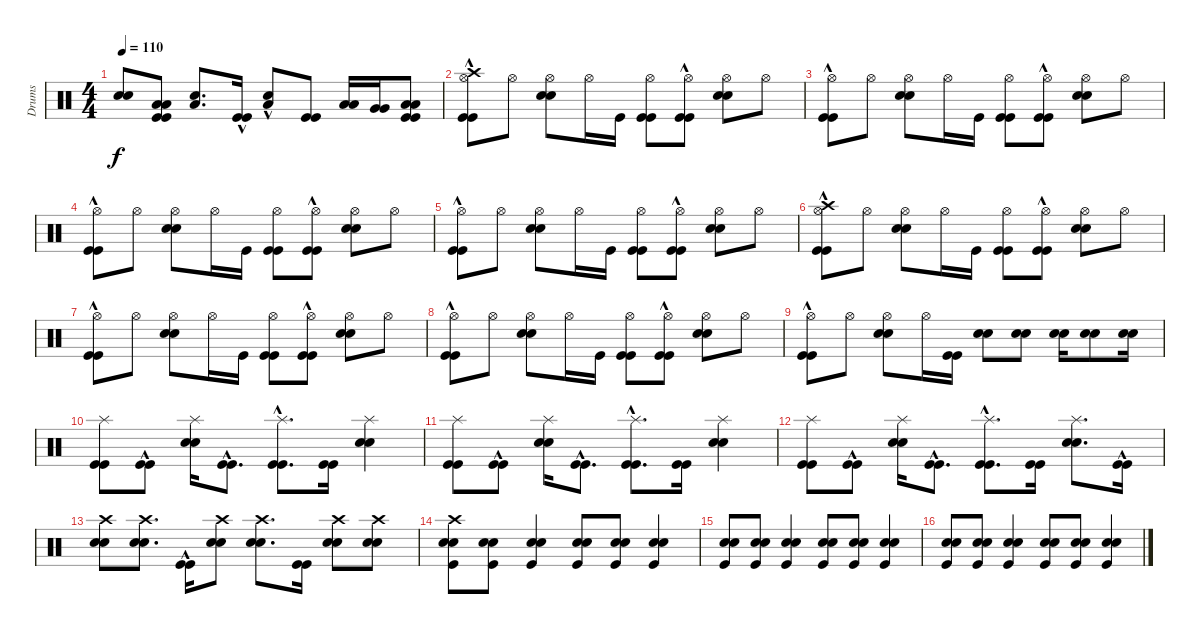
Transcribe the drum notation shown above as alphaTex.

\track ("Drums" "Drums") {instrument percussion}
\staff {score}
\articulation defaults
\ts (4 4)
\tempo 110
\clef neutral
\ks c
("Snare (hit) 2" "Snare (hit) 2").8{dy f} ("Kick (hit)" "Kick (hit)" "Low Tom (hit)" "Low Tom (hit)").8 ("Low Floor Tom (hit)" "Snare (hit) 2").8{d} ("Kick (hit)"{hac} "Kick (hit)"{hac}).16 ("Low Floor Tom (hit)"{hac} "Snare (hit) 2"{hac}).8 ("Kick (hit)" "Kick (hit)").8 ("Low Tom (hit)" "Low Tom (hit)").16 ("Very Low Tom (hit)" "Very Low Tom (hit)").16 ("Kick (hit)" "Kick (hit)" "Low Floor Tom (hit)" "Low Floor Tom (hit)").8 |
("Kick (hit)"{hac} "Kick (hit)"{hac} "Hi-Hat (open)" "Crash high (hit)").8 "Hi-Hat (open)".8 ("Snare (hit) 2" "Snare (hit) 2" "Hi-Hat (open)").8 "Hi-Hat (open)".16 "Kick (hit)".16 ("Kick (hit)" "Kick (hit)" "Hi-Hat (open)").8 ("Kick (hit)"{hac} "Kick (hit)"{hac} "Hi-Hat (open)").8 ("Snare (hit) 2" "Snare (hit) 2" "Hi-Hat (open)").8 "Hi-Hat (open)".8 |
("Kick (hit)"{hac} "Kick (hit)"{hac} "Hi-Hat (open)").8 "Hi-Hat (open)".8 ("Snare (hit) 2" "Snare (hit) 2" "Hi-Hat (open)").8 "Hi-Hat (open)".16 "Kick (hit)".16 ("Kick (hit)" "Kick (hit)" "Hi-Hat (open)").8 ("Kick (hit)"{hac} "Kick (hit)"{hac} "Hi-Hat (open)").8 ("Snare (hit) 2" "Snare (hit) 2" "Hi-Hat (open)").8 "Hi-Hat (open)".8 |
("Kick (hit)"{hac} "Kick (hit)"{hac} "Hi-Hat (open)").8 "Hi-Hat (open)".8 ("Snare (hit) 2" "Snare (hit) 2" "Hi-Hat (open)").8 "Hi-Hat (open)".16 "Kick (hit)".16 ("Kick (hit)" "Kick (hit)" "Hi-Hat (open)").8 ("Kick (hit)"{hac} "Kick (hit)"{hac} "Hi-Hat (open)").8 ("Snare (hit) 2" "Snare (hit) 2" "Hi-Hat (open)").8 "Hi-Hat (open)".8 |
("Kick (hit)"{hac} "Kick (hit)"{hac} "Hi-Hat (open)").8 "Hi-Hat (open)".8 ("Snare (hit) 2" "Snare (hit) 2" "Hi-Hat (open)").8 "Hi-Hat (open)".16 "Kick (hit)".16 ("Kick (hit)" "Kick (hit)" "Hi-Hat (open)").8 ("Kick (hit)"{hac} "Kick (hit)"{hac} "Hi-Hat (open)").8 ("Snare (hit) 2" "Snare (hit) 2" "Hi-Hat (open)").8 "Hi-Hat (open)".8 |
("Kick (hit)"{hac} "Kick (hit)"{hac} "Hi-Hat (open)" "Crash high (hit)").8 "Hi-Hat (open)".8 ("Snare (hit) 2" "Snare (hit) 2" "Hi-Hat (open)").8 "Hi-Hat (open)".16 "Kick (hit)".16 ("Kick (hit)" "Kick (hit)" "Hi-Hat (open)").8 ("Kick (hit)"{hac} "Kick (hit)"{hac} "Hi-Hat (open)").8 ("Snare (hit) 2" "Snare (hit) 2" "Hi-Hat (open)").8 "Hi-Hat (open)".8 |
("Kick (hit)"{hac} "Kick (hit)"{hac} "Hi-Hat (open)").8 "Hi-Hat (open)".8 ("Snare (hit) 2" "Snare (hit) 2" "Hi-Hat (open)").8 "Hi-Hat (open)".16 "Kick (hit)".16 ("Kick (hit)" "Kick (hit)" "Hi-Hat (open)").8 ("Kick (hit)"{hac} "Kick (hit)"{hac} "Hi-Hat (open)").8 ("Snare (hit) 2" "Snare (hit) 2" "Hi-Hat (open)").8 "Hi-Hat (open)".8 |
("Kick (hit)"{hac} "Kick (hit)"{hac} "Hi-Hat (open)").8 "Hi-Hat (open)".8 ("Snare (hit) 2" "Snare (hit) 2" "Hi-Hat (open)").8 "Hi-Hat (open)".16 "Kick (hit)".16 ("Kick (hit)" "Kick (hit)" "Hi-Hat (open)").8 ("Kick (hit)"{hac} "Kick (hit)"{hac} "Hi-Hat (open)").8 ("Snare (hit) 2" "Snare (hit) 2" "Hi-Hat (open)").8 "Hi-Hat (open)".8 |
("Kick (hit)"{hac} "Kick (hit)"{hac} "Hi-Hat (open)").8 "Hi-Hat (open)".8 ("Snare (hit) 2" "Snare (hit) 2" "Hi-Hat (open)").8 "Hi-Hat (open)".16 ("Kick (hit)" "Kick (hit)").16 ("Snare (hit) 2" "Snare (hit) 2").8 ("Snare (hit) 2" "Snare (hit) 2").8 ("Snare (hit) 2" "Snare (hit) 2").16 ("Snare (hit) 2" "Snare (hit) 2").8 ("Snare (hit) 2" "Snare (hit) 2").16 |
("Kick (hit)" "Kick (hit)" "Splash (hit)").8 ("Kick (hit)"{hac} "Kick (hit)"{hac}).8 ("Snare (hit) 2" "Snare (hit) 2" "Splash (hit)").16 ("Kick (hit)"{hac} "Kick (hit)"{hac}).8{d} ("Kick (hit)"{hac} "Kick (hit)"{hac} "Splash (hit)").8{d} ("Kick (hit)" "Kick (hit)").16 ("Snare (hit) 2" "Snare (hit) 2" "Splash (hit)").4 |
("Kick (hit)" "Kick (hit)" "Splash (hit)").8 ("Kick (hit)"{hac} "Kick (hit)"{hac}).8 ("Snare (hit) 2" "Snare (hit) 2" "Splash (hit)").16 ("Kick (hit)"{hac} "Kick (hit)"{hac}).8{d} ("Kick (hit)"{hac} "Kick (hit)"{hac} "Splash (hit)").8{d} ("Kick (hit)" "Kick (hit)").16 ("Snare (hit) 2" "Snare (hit) 2" "Splash (hit)").4 |
("Kick (hit)" "Kick (hit)" "Splash (hit)").8 ("Kick (hit)"{hac} "Kick (hit)"{hac}).8 ("Snare (hit) 2" "Snare (hit) 2" "Splash (hit)").16 ("Kick (hit)"{hac} "Kick (hit)"{hac}).8{d} ("Kick (hit)"{hac} "Kick (hit)"{hac} "Splash (hit)").8{d} ("Kick (hit)" "Kick (hit)").16 ("Snare (hit) 2" "Snare (hit) 2" "Splash (hit)").8{d} ("Kick (hit)"{hac} "Kick (hit)"{hac}).16 |
("Snare (hit) 2" "Snare (hit) 2" "Crash high (hit)").8 ("Snare (hit) 2" "Snare (hit) 2" "Crash high (hit)").8{d} ("Kick (hit)"{hac} "Kick (hit)"{hac}).16 ("Snare (hit) 2" "Snare (hit) 2" "Crash high (hit)").8 ("Snare (hit) 2" "Snare (hit) 2" "Crash high (hit)").8{d} ("Kick (hit)" "Kick (hit)").16 ("Snare (hit) 2" "Snare (hit) 2" "Crash high (hit)").8 ("Snare (hit) 2" "Snare (hit) 2" "Crash high (hit)").8 |
("Kick (hit)" "Snare (hit) 2" "Snare (hit) 2" "Crash high (hit)").8 ("Kick (hit)" "Snare (hit) 2" "Snare (hit) 2").8 ("Kick (hit)" "Snare (hit) 2" "Snare (hit) 2").4 ("Kick (hit)" "Snare (hit) 2" "Snare (hit) 2").8 ("Kick (hit)" "Snare (hit) 2" "Snare (hit) 2").8 ("Kick (hit)" "Snare (hit) 2" "Snare (hit) 2").4 |
("Kick (hit)" "Snare (hit) 2" "Snare (hit) 2").8 ("Kick (hit)" "Snare (hit) 2" "Snare (hit) 2").8 ("Kick (hit)" "Snare (hit) 2" "Snare (hit) 2").4 ("Kick (hit)" "Snare (hit) 2" "Snare (hit) 2").8 ("Kick (hit)" "Snare (hit) 2" "Snare (hit) 2").8 ("Kick (hit)" "Snare (hit) 2" "Snare (hit) 2").4 |
("Kick (hit)" "Snare (hit) 2" "Snare (hit) 2").8 ("Kick (hit)" "Snare (hit) 2" "Snare (hit) 2").8 ("Kick (hit)" "Snare (hit) 2" "Snare (hit) 2").4 ("Kick (hit)" "Snare (hit) 2" "Snare (hit) 2").8 ("Kick (hit)" "Snare (hit) 2" "Snare (hit) 2").8 ("Kick (hit)" "Snare (hit) 2" "Snare (hit) 2").4
